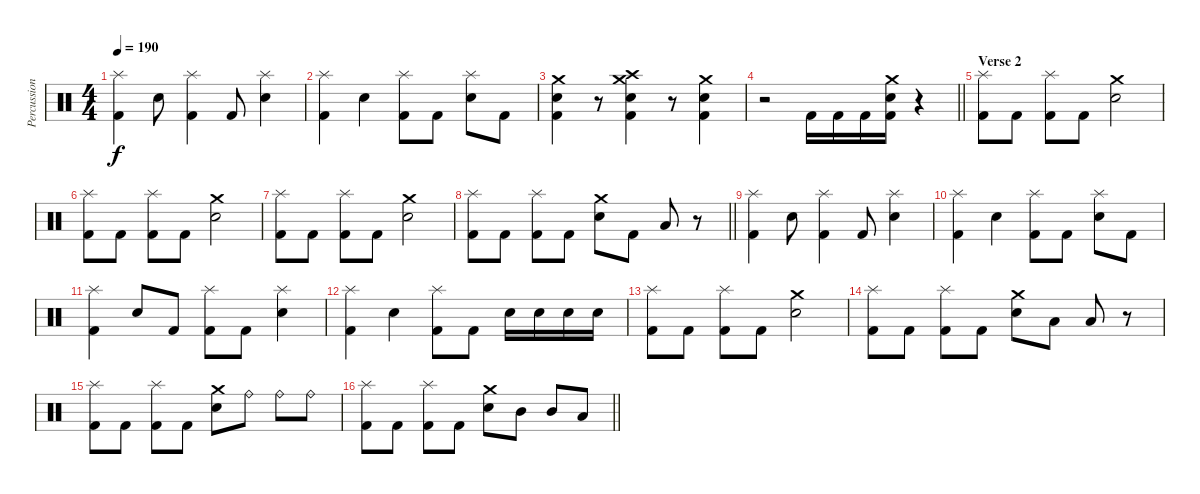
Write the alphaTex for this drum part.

\track ("Percussion" "Percussion") {instrument percussion}
\staff {score}
\articulation defaults
\ts (4 4)
\tempo 190
\clef neutral
\ks c
("Splash (hit)" "Kick (hit) 2").4{dy f} "Electric Snare (hit)".8 ("Splash (hit)" "Kick (hit) 2").4 "Kick (hit) 2".8 ("Splash (hit)" "Electric Snare (hit)").4 |
("Splash (hit)" "Kick (hit) 2").4 "Electric Snare (hit)".4 ("Splash (hit)" "Kick (hit) 2").8 "Kick (hit) 2".8 ("Splash (hit)" "Electric Snare (hit)").8 "Kick (hit) 2".8 |
("Crash medium (hit)" "Electric Snare (hit)" "Kick (hit) 2").4 r.8 ("Crash high (hit)" "Crash medium (hit)" "Electric Snare (hit)" "Kick (hit) 2").4 r.8 ("Crash medium (hit)" "Electric Snare (hit)" "Kick (hit) 2").4 |
\barLineRight lightlight
r.2 "Kick (hit) 2".16 "Kick (hit) 2".16 "Kick (hit) 2".16 ("Crash medium (hit)" "Electric Snare (hit)" "Kick (hit) 2").16 r.4 |
\section ("" "Verse 2")
("Splash (hit)" "Kick (hit) 2").8 "Kick (hit) 2".8 ("Splash (hit)" "Kick (hit) 2").8 "Kick (hit) 2".8 ("Crash medium (hit)" "Electric Snare (hit)").2 |
("Splash (hit)" "Kick (hit) 2").8 "Kick (hit) 2".8 ("Splash (hit)" "Kick (hit) 2").8 "Kick (hit) 2".8 ("Crash medium (hit)" "Electric Snare (hit)").2 |
("Splash (hit)" "Kick (hit) 2").8 "Kick (hit) 2".8 ("Splash (hit)" "Kick (hit) 2").8 "Kick (hit) 2".8 ("Crash medium (hit)" "Electric Snare (hit)").2 |
\barLineRight lightlight
("Splash (hit)" "Kick (hit) 2").8 "Kick (hit) 2".8 ("Splash (hit)" "Kick (hit) 2").8 "Kick (hit) 2".8 ("Crash medium (hit)" "Electric Snare (hit)").8 "Kick (hit) 2".8 "Low Tom (hit)".8 r.8 |
("Splash (hit)" "Kick (hit) 2").4 "Electric Snare (hit)".8 ("Splash (hit)" "Kick (hit) 2").4 "Kick (hit) 2".8 ("Splash (hit)" "Electric Snare (hit)").4 |
("Splash (hit)" "Kick (hit) 2").4 "Electric Snare (hit)".4 ("Splash (hit)" "Kick (hit) 2").8 "Kick (hit) 2".8 ("Splash (hit)" "Electric Snare (hit)").8 "Kick (hit) 2".8 |
("Splash (hit)" "Kick (hit) 2").4 "Electric Snare (hit)".8 "Kick (hit) 2".8 ("Splash (hit)" "Kick (hit) 2").8 "Kick (hit) 2".8 ("Splash (hit)" "Electric Snare (hit)").4 |
("Splash (hit)" "Kick (hit) 2").4 "Electric Snare (hit)".4 ("Splash (hit)" "Kick (hit) 2").8 "Kick (hit) 2".8 "Electric Snare (hit)".16 "Electric Snare (hit)".16 "Electric Snare (hit)".16 "Electric Snare (hit)".16 |
("Splash (hit)" "Kick (hit) 2").8 "Kick (hit) 2".8 ("Splash (hit)" "Kick (hit) 2").8 "Kick (hit) 2".8 ("Crash medium (hit)" "Electric Snare (hit)").2 |
("Splash (hit)" "Kick (hit) 2").8 "Kick (hit) 2".8 ("Splash (hit)" "Kick (hit) 2").8 "Kick (hit) 2".8 ("Crash medium (hit)" "Electric Snare (hit)").8 "Low Tom (hit)".8 "Low Tom (hit)".8 r.8 |
("Splash (hit)" "Kick (hit) 2").8 "Kick (hit) 2".8 ("Splash (hit)" "Kick (hit) 2").8 "Kick (hit) 2".8 ("Crash medium (hit)" "Electric Snare (hit)").8 "Ride (bell)".8 "Ride (bell)".8 "Ride (bell)".8 |
\barLineRight lightlight
("Splash (hit)" "Kick (hit) 2").8 "Kick (hit) 2".8 ("Splash (hit)" "Kick (hit) 2").8 "Kick (hit) 2".8 ("Crash medium (hit)" "Electric Snare (hit)").8 "Mid Tom (hit)".8 "Mid Tom (hit)".8 "Low Tom (hit)".8
